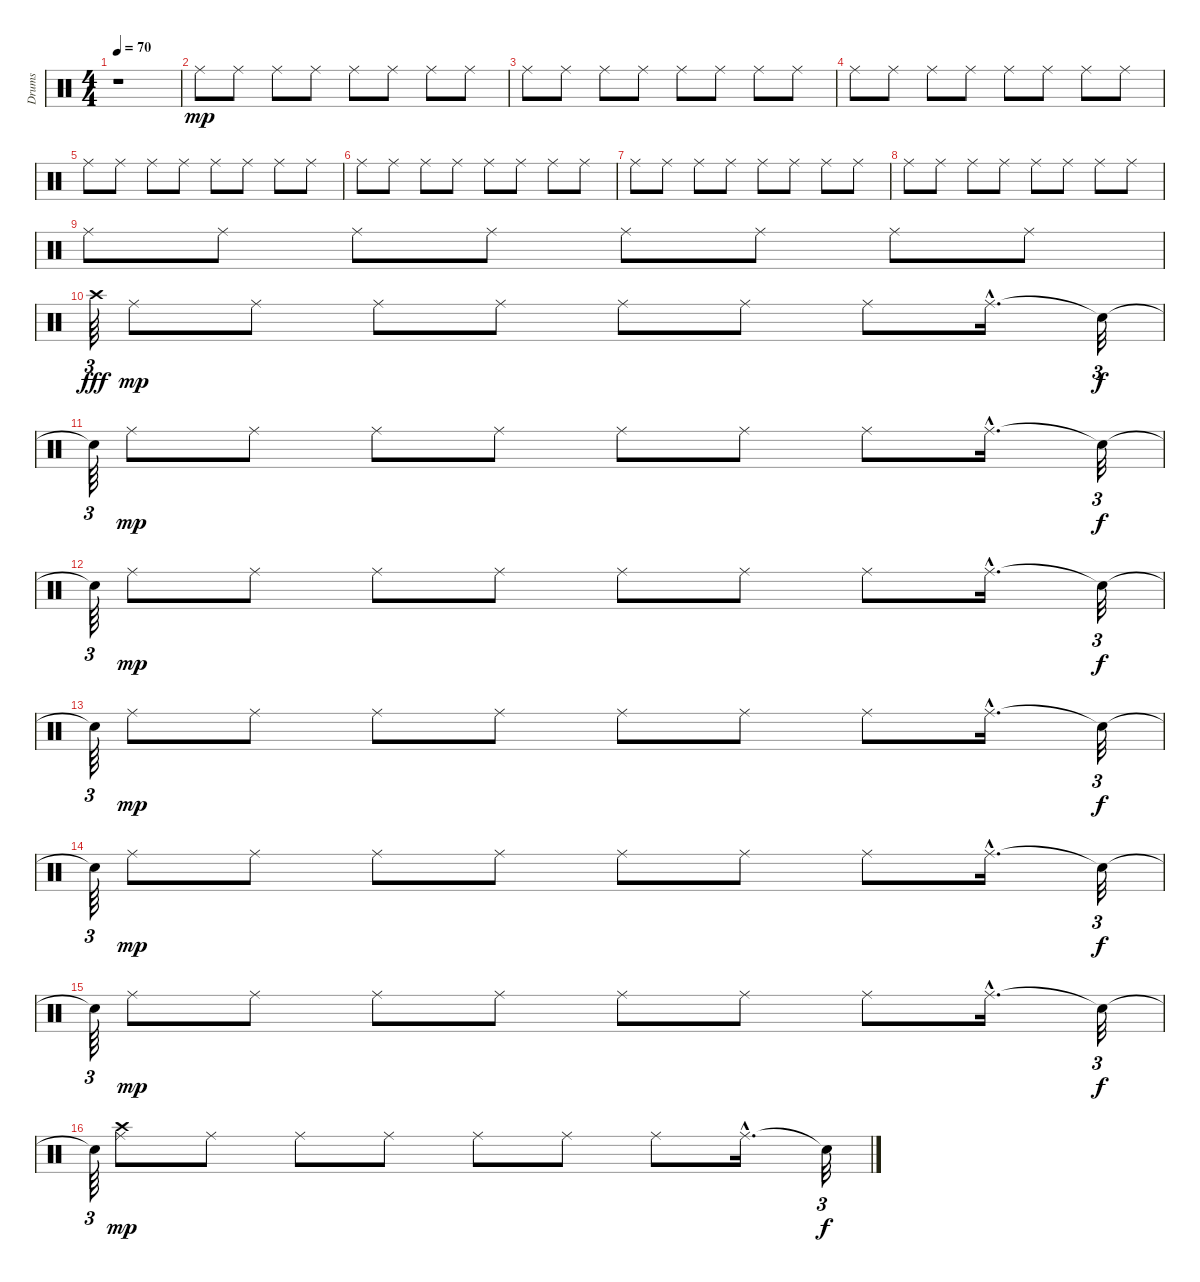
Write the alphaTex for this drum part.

\track ("Drums               " "Drums     ") {instrument percussion}
\staff {score}
\articulation defaults
\ts (4 4)
\tempo 70
\clef neutral
\ks c
r.1{dy mp} |
"Ride (middle)".8 "Ride (middle)".8 "Ride (middle)".8 "Ride (middle)".8 "Ride (middle)".8 "Ride (middle)".8 "Ride (middle)".8 "Ride (middle)".8 |
"Ride (middle)".8 "Ride (middle)".8 "Ride (middle)".8 "Ride (middle)".8 "Ride (middle)".8 "Ride (middle)".8 "Ride (middle)".8 "Ride (middle)".8 |
"Ride (middle)".8 "Ride (middle)".8 "Ride (middle)".8 "Ride (middle)".8 "Ride (middle)".8 "Ride (middle)".8 "Ride (middle)".8 "Ride (middle)".8 |
"Ride (middle)".8 "Ride (middle)".8 "Ride (middle)".8 "Ride (middle)".8 "Ride (middle)".8 "Ride (middle)".8 "Ride (middle)".8 "Ride (middle)".8 |
"Ride (middle)".8 "Ride (middle)".8 "Ride (middle)".8 "Ride (middle)".8 "Ride (middle)".8 "Ride (middle)".8 "Ride (middle)".8 "Ride (middle)".8 |
"Ride (middle)".8 "Ride (middle)".8 "Ride (middle)".8 "Ride (middle)".8 "Ride (middle)".8 "Ride (middle)".8 "Ride (middle)".8 "Ride (middle)".8 |
"Ride (middle)".8 "Ride (middle)".8 "Ride (middle)".8 "Ride (middle)".8 "Ride (middle)".8 "Ride (middle)".8 "Ride (middle)".8 "Ride (middle)".8 |
"Ride (middle)".8 "Ride (middle)".8 "Ride (middle)".8 "Ride (middle)".8 "Ride (middle)".8 "Ride (middle)".8 "Ride (middle)".8 "Ride (middle)".8 |
"Crash high (hit)".64{tu (3 2) dy fff} "Ride (middle)".8{dy mp} "Ride (middle)".8 "Ride (middle)".8 "Ride (middle)".8 "Ride (middle)".8 "Ride (middle)".8 "Ride (middle)".8 "Ride (middle)"{hac}.16{d} "Snare (hit)"{t}.32{tu (3 2) dy f} |
"Snare (hit)"{t}.64{tu (3 2)} "Ride (middle)".8{dy mp} "Ride (middle)".8 "Ride (middle)".8 "Ride (middle)".8 "Ride (middle)".8 "Ride (middle)".8 "Ride (middle)".8 "Ride (middle)"{hac}.16{d} "Snare (hit)"{t}.32{tu (3 2) dy f} |
"Snare (hit)"{t}.64{tu (3 2)} "Ride (middle)".8{dy mp} "Ride (middle)".8 "Ride (middle)".8 "Ride (middle)".8 "Ride (middle)".8 "Ride (middle)".8 "Ride (middle)".8 "Ride (middle)"{hac}.16{d} "Snare (hit)"{t}.32{tu (3 2) dy f} |
"Snare (hit)"{t}.64{tu (3 2)} "Ride (middle)".8{dy mp} "Ride (middle)".8 "Ride (middle)".8 "Ride (middle)".8 "Ride (middle)".8 "Ride (middle)".8 "Ride (middle)".8 "Ride (middle)"{hac}.16{d} "Snare (hit)"{t}.32{tu (3 2) dy f} |
"Snare (hit)"{t}.64{tu (3 2)} "Ride (middle)".8{dy mp} "Ride (middle)".8 "Ride (middle)".8 "Ride (middle)".8 "Ride (middle)".8 "Ride (middle)".8 "Ride (middle)".8 "Ride (middle)"{hac}.16{d} "Snare (hit)"{t}.32{tu (3 2) dy f} |
"Snare (hit)"{t}.64{tu (3 2)} "Ride (middle)".8{dy mp} "Ride (middle)".8 "Ride (middle)".8 "Ride (middle)".8 "Ride (middle)".8 "Ride (middle)".8 "Ride (middle)".8 "Ride (middle)"{hac}.16{d} "Snare (hit)"{t}.32{tu (3 2) dy f} |
"Snare (hit)"{t}.64{tu (3 2)} ("Crash high (hit)" "Ride (middle)").8{dy mp} "Ride (middle)".8 "Ride (middle)".8 "Ride (middle)".8 "Ride (middle)".8 "Ride (middle)".8 "Ride (middle)".8 "Ride (middle)"{hac}.16{d} "Snare (hit)"{t}.32{tu (3 2) dy f}
